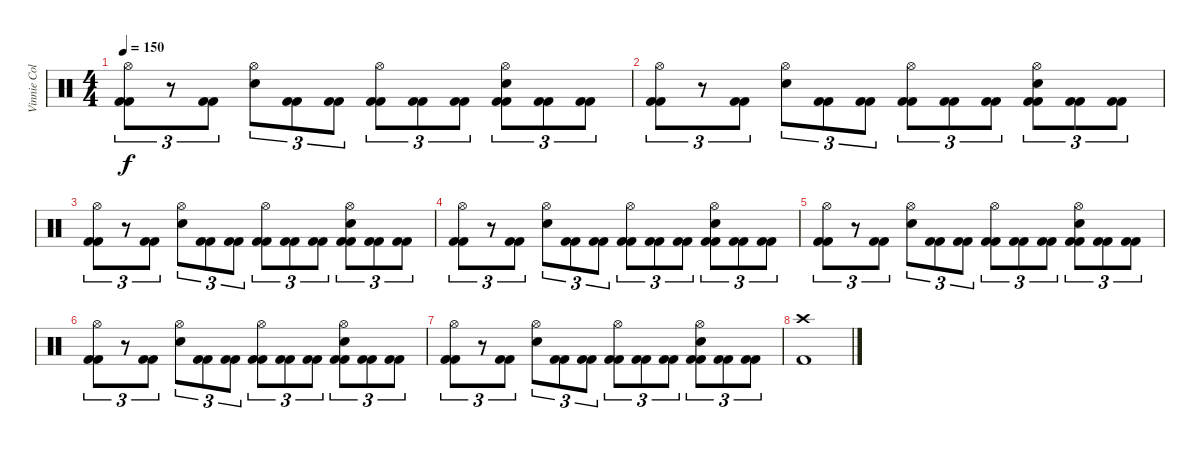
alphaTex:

\track ("Vinnie Colaiuta" "Vinnie Col") {instrument percussion}
\staff {score}
\articulation defaults
\ts (4 4)
\tempo 150
\clef neutral
\ks c
("Hi-Hat (open)" "Kick (hit) 2" "Kick (hit) 2").8{tu (3 2) dy f} r.8{tu (3 2)} ("Kick (hit) 2" "Kick (hit) 2").8{tu (3 2)} ("Hi-Hat (open)" "Snare (hit) 2").8{tu (3 2)} ("Kick (hit) 2" "Kick (hit) 2").8{tu (3 2)} ("Kick (hit) 2" "Kick (hit) 2").8{tu (3 2)} ("Hi-Hat (open)" "Kick (hit) 2" "Kick (hit) 2").8{tu (3 2)} ("Kick (hit) 2" "Kick (hit) 2").8{tu (3 2)} ("Kick (hit) 2" "Kick (hit) 2").8{tu (3 2)} ("Hi-Hat (open)" "Snare (hit) 2" "Kick (hit) 2" "Kick (hit) 2").8{tu (3 2)} ("Kick (hit) 2" "Kick (hit) 2").8{tu (3 2)} ("Kick (hit) 2" "Kick (hit) 2").8{tu (3 2)} |
("Hi-Hat (open)" "Kick (hit) 2" "Kick (hit) 2").8{tu (3 2)} r.8{tu (3 2)} ("Kick (hit) 2" "Kick (hit) 2").8{tu (3 2)} ("Hi-Hat (open)" "Snare (hit) 2").8{tu (3 2)} ("Kick (hit) 2" "Kick (hit) 2").8{tu (3 2)} ("Kick (hit) 2" "Kick (hit) 2").8{tu (3 2)} ("Hi-Hat (open)" "Kick (hit) 2" "Kick (hit) 2").8{tu (3 2)} ("Kick (hit) 2" "Kick (hit) 2").8{tu (3 2)} ("Kick (hit) 2" "Kick (hit) 2").8{tu (3 2)} ("Hi-Hat (open)" "Snare (hit) 2" "Kick (hit) 2" "Kick (hit) 2").8{tu (3 2)} ("Kick (hit) 2" "Kick (hit) 2").8{tu (3 2)} ("Kick (hit) 2" "Kick (hit) 2").8{tu (3 2)} |
("Hi-Hat (open)" "Kick (hit) 2" "Kick (hit) 2").8{tu (3 2)} r.8{tu (3 2)} ("Kick (hit) 2" "Kick (hit) 2").8{tu (3 2)} ("Hi-Hat (open)" "Snare (hit) 2").8{tu (3 2)} ("Kick (hit) 2" "Kick (hit) 2").8{tu (3 2)} ("Kick (hit) 2" "Kick (hit) 2").8{tu (3 2)} ("Hi-Hat (open)" "Kick (hit) 2" "Kick (hit) 2").8{tu (3 2)} ("Kick (hit) 2" "Kick (hit) 2").8{tu (3 2)} ("Kick (hit) 2" "Kick (hit) 2").8{tu (3 2)} ("Hi-Hat (open)" "Snare (hit) 2" "Kick (hit) 2" "Kick (hit) 2").8{tu (3 2)} ("Kick (hit) 2" "Kick (hit) 2").8{tu (3 2)} ("Kick (hit) 2" "Kick (hit) 2").8{tu (3 2)} |
("Hi-Hat (open)" "Kick (hit) 2" "Kick (hit) 2").8{tu (3 2)} r.8{tu (3 2)} ("Kick (hit) 2" "Kick (hit) 2").8{tu (3 2)} ("Hi-Hat (open)" "Snare (hit) 2").8{tu (3 2)} ("Kick (hit) 2" "Kick (hit) 2").8{tu (3 2)} ("Kick (hit) 2" "Kick (hit) 2").8{tu (3 2)} ("Hi-Hat (open)" "Kick (hit) 2" "Kick (hit) 2").8{tu (3 2)} ("Kick (hit) 2" "Kick (hit) 2").8{tu (3 2)} ("Kick (hit) 2" "Kick (hit) 2").8{tu (3 2)} ("Hi-Hat (open)" "Snare (hit) 2" "Kick (hit) 2" "Kick (hit) 2").8{tu (3 2)} ("Kick (hit) 2" "Kick (hit) 2").8{tu (3 2)} ("Kick (hit) 2" "Kick (hit) 2").8{tu (3 2)} |
("Hi-Hat (open)" "Kick (hit) 2" "Kick (hit) 2").8{tu (3 2)} r.8{tu (3 2)} ("Kick (hit) 2" "Kick (hit) 2").8{tu (3 2)} ("Hi-Hat (open)" "Snare (hit) 2").8{tu (3 2)} ("Kick (hit) 2" "Kick (hit) 2").8{tu (3 2)} ("Kick (hit) 2" "Kick (hit) 2").8{tu (3 2)} ("Hi-Hat (open)" "Kick (hit) 2" "Kick (hit) 2").8{tu (3 2)} ("Kick (hit) 2" "Kick (hit) 2").8{tu (3 2)} ("Kick (hit) 2" "Kick (hit) 2").8{tu (3 2)} ("Hi-Hat (open)" "Snare (hit) 2" "Kick (hit) 2" "Kick (hit) 2").8{tu (3 2)} ("Kick (hit) 2" "Kick (hit) 2").8{tu (3 2)} ("Kick (hit) 2" "Kick (hit) 2").8{tu (3 2)} |
("Hi-Hat (open)" "Kick (hit) 2" "Kick (hit) 2").8{tu (3 2)} r.8{tu (3 2)} ("Kick (hit) 2" "Kick (hit) 2").8{tu (3 2)} ("Hi-Hat (open)" "Snare (hit) 2").8{tu (3 2)} ("Kick (hit) 2" "Kick (hit) 2").8{tu (3 2)} ("Kick (hit) 2" "Kick (hit) 2").8{tu (3 2)} ("Hi-Hat (open)" "Kick (hit) 2" "Kick (hit) 2").8{tu (3 2)} ("Kick (hit) 2" "Kick (hit) 2").8{tu (3 2)} ("Kick (hit) 2" "Kick (hit) 2").8{tu (3 2)} ("Hi-Hat (open)" "Snare (hit) 2" "Kick (hit) 2" "Kick (hit) 2").8{tu (3 2)} ("Kick (hit) 2" "Kick (hit) 2").8{tu (3 2)} ("Kick (hit) 2" "Kick (hit) 2").8{tu (3 2)} |
("Hi-Hat (open)" "Kick (hit) 2" "Kick (hit) 2").8{tu (3 2)} r.8{tu (3 2)} ("Kick (hit) 2" "Kick (hit) 2").8{tu (3 2)} ("Hi-Hat (open)" "Snare (hit) 2").8{tu (3 2)} ("Kick (hit) 2" "Kick (hit) 2").8{tu (3 2)} ("Kick (hit) 2" "Kick (hit) 2").8{tu (3 2)} ("Hi-Hat (open)" "Kick (hit) 2" "Kick (hit) 2").8{tu (3 2)} ("Kick (hit) 2" "Kick (hit) 2").8{tu (3 2)} ("Kick (hit) 2" "Kick (hit) 2").8{tu (3 2)} ("Hi-Hat (open)" "Snare (hit) 2" "Kick (hit) 2" "Kick (hit) 2").8{tu (3 2)} ("Kick (hit) 2" "Kick (hit) 2").8{tu (3 2)} ("Kick (hit) 2" "Kick (hit) 2").8{tu (3 2)} |
("Crash high (hit)" "Kick (hit) 2").1
